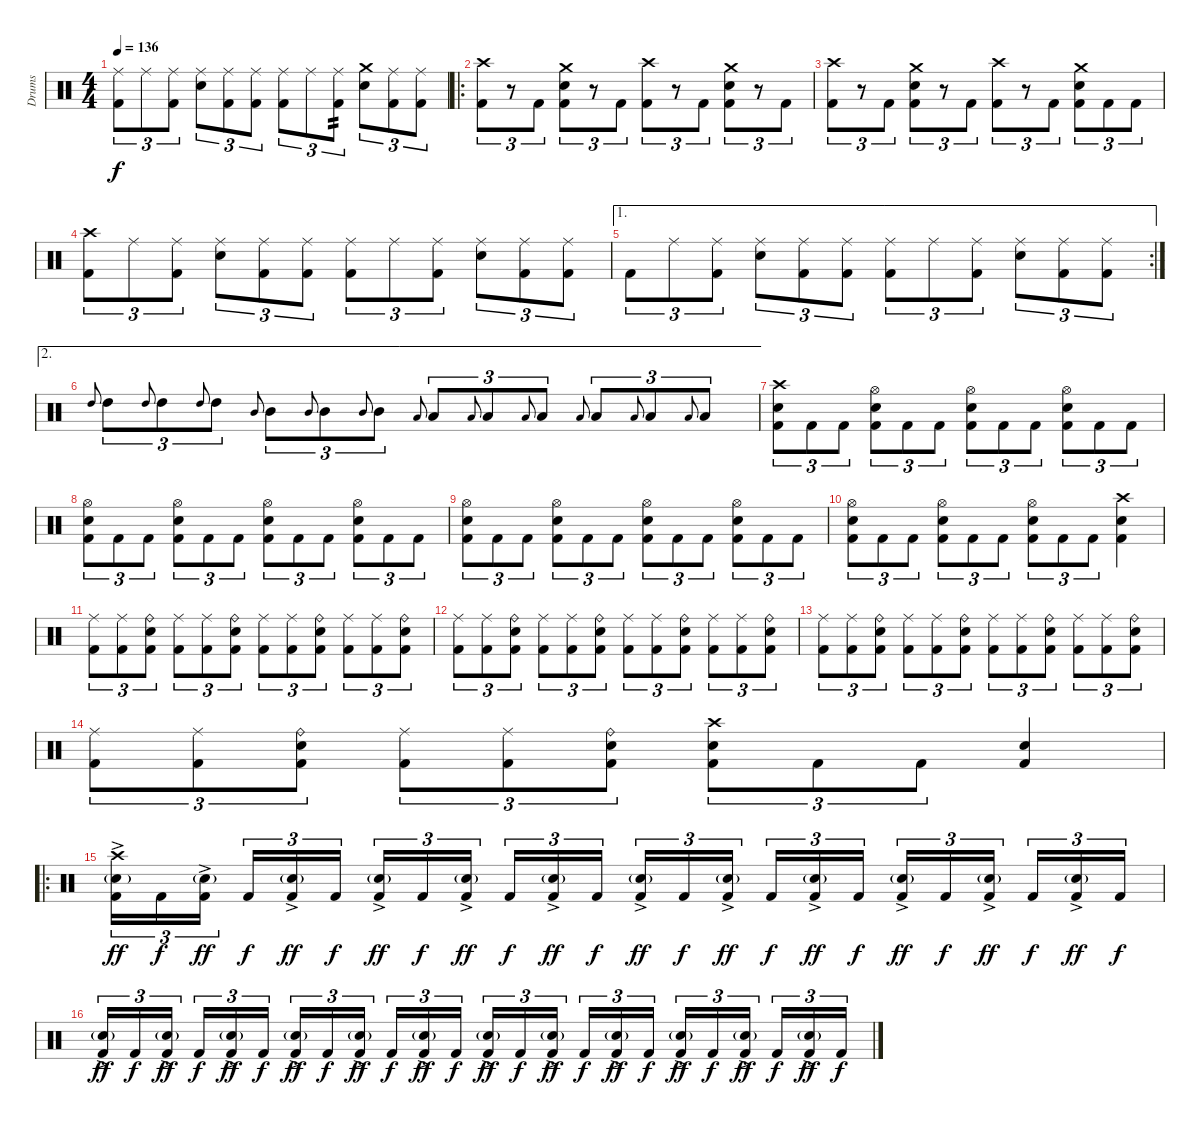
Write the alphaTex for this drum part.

\track ("Drums" "Drums") {instrument percussion}
\staff {score}
\articulation defaults
\ts (4 4)
\tempo 136
\clef neutral
\ks c
("Ride (middle)" "Kick (hit) 2").8{tu (3 2) dy f} "Ride (middle)".8{tu (3 2)} ("Ride (middle)" "Kick (hit) 2").8{tu (3 2)} ("Ride (middle)" "Electric Snare (hit)").8{tu (3 2)} ("Ride (middle)" "Kick (hit) 2").8{tu (3 2)} ("Ride (middle)" "Kick (hit) 2").8{tu (3 2)} ("Ride (middle)" "Kick (hit) 2").8{tu (3 2)} "Ride (middle)".8{tu (3 2)} ("Ride (middle)" "Kick (hit) 2").8{tu (3 2) tp 2} ("Crash medium (hit)" "Electric Snare (hit)").8{tu (3 2)} ("Ride (middle)" "Kick (hit) 2").8{tu (3 2)} ("Ride (middle)" "Kick (hit) 2").8{tu (3 2)} |
\ro
("Crash high (hit)" "Kick (hit) 2").8{tu (3 2)} r.8{tu (3 2)} "Kick (hit) 2".8{tu (3 2)} ("Crash medium (hit)" "Electric Snare (hit)" "Kick (hit) 2").8{tu (3 2)} r.8{tu (3 2)} "Kick (hit) 2".8{tu (3 2)} ("Crash high (hit)" "Kick (hit) 2").8{tu (3 2)} r.8{tu (3 2)} "Kick (hit) 2".8{tu (3 2)} ("Crash medium (hit)" "Electric Snare (hit)" "Kick (hit) 2").8{tu (3 2)} r.8{tu (3 2)} "Kick (hit) 2".8{tu (3 2)} |
("Crash high (hit)" "Kick (hit) 2").8{tu (3 2)} r.8{tu (3 2)} "Kick (hit) 2".8{tu (3 2)} ("Crash medium (hit)" "Electric Snare (hit)" "Kick (hit) 2").8{tu (3 2)} r.8{tu (3 2)} "Kick (hit) 2".8{tu (3 2)} ("Crash high (hit)" "Kick (hit) 2").8{tu (3 2)} r.8{tu (3 2)} "Kick (hit) 2".8{tu (3 2)} ("Crash medium (hit)" "Electric Snare (hit)" "Kick (hit) 2").8{tu (3 2)} "Kick (hit) 2".8{tu (3 2)} "Kick (hit) 2".8{tu (3 2)} |
("Crash high (hit)" "Kick (hit) 2").8{tu (3 2)} "Ride (middle)".8{tu (3 2)} ("Ride (middle)" "Kick (hit) 2").8{tu (3 2)} ("Ride (middle)" "Electric Snare (hit)").8{tu (3 2)} ("Ride (middle)" "Kick (hit) 2").8{tu (3 2)} ("Ride (middle)" "Kick (hit) 2").8{tu (3 2)} ("Ride (middle)" "Kick (hit) 2").8{tu (3 2)} "Ride (middle)".8{tu (3 2)} ("Ride (middle)" "Kick (hit) 2").8{tu (3 2)} ("Ride (middle)" "Electric Snare (hit)").8{tu (3 2)} ("Ride (middle)" "Kick (hit) 2").8{tu (3 2)} ("Ride (middle)" "Kick (hit) 2").8{tu (3 2)} |
\ae 1
\rc 2 "Kick (hit) 2".8{tu (3 2)} "Ride (middle)".8{tu (3 2)}
("Ride (middle)" "Kick (hit) 2").8{tu (3 2)} ("Ride (middle)" "Electric Snare (hit)").8{tu (3 2)} ("Ride (middle)" "Kick (hit) 2").8{tu (3 2)} ("Ride (middle)" "Kick (hit) 2").8{tu (3 2)} ("Ride (middle)" "Kick (hit) 2").8{tu (3 2)} "Ride (middle)".8{tu (3 2)} ("Ride (middle)" "Kick (hit) 2").8{tu (3 2)} ("Ride (middle)" "Electric Snare (hit)").8{tu (3 2)} ("Ride (middle)" "Kick (hit) 2").8{tu (3 2)} ("Ride (middle)" "Kick (hit) 2").8{tu (3 2)} |
\ae 2 "High Tom (hit)".8{gr onbeat} "High Tom (hit)".8{tu (3 2)} "High Tom (hit)".8{gr onbeat} "High Tom (hit)".8{tu (3 2)} "High Tom (hit)".8{gr onbeat} "High Tom (hit)".8{tu (3 2)} "Mid Tom (hit)".8{gr onbeat} "Mid Tom (hit)".8{tu (3 2)} "Mid Tom (hit)".8{gr onbeat} "Mid Tom (hit)".8{tu (3 2)} "Mid Tom (hit)".8{gr onbeat} "Mid Tom (hit)".8{tu (3 2)} "Low Tom (hit)".8{gr onbeat} "Low Tom (hit)".8{tu (3 2)} "Low Tom (hit)".8{gr onbeat} "Low Tom (hit)".8{tu (3 2)} "Low Tom (hit)".8{gr onbeat} "Low Tom (hit)".8{tu (3 2)} "Low Floor Tom (hit)".8{gr onbeat} "Low Floor Tom (hit)".8{tu (3 2)} "Low Floor Tom (hit)".8{gr onbeat} "Low Floor Tom (hit)".8{tu (3 2)} "Low Floor Tom (hit)".8{gr onbeat} "Low Floor Tom (hit)".8{tu (3 2)}
|
("Crash high (hit)" "Electric Snare (hit)" "Kick (hit) 2").8{tu (3 2)} "Kick (hit) 2".8{tu (3 2)} "Kick (hit) 2".8{tu (3 2)} ("Hi-Hat (open)" "Electric Snare (hit)" "Kick (hit) 2").8{tu (3 2)} "Kick (hit) 2".8{tu (3 2)} "Kick (hit) 2".8{tu (3 2)} ("Hi-Hat (open)" "Electric Snare (hit)" "Kick (hit) 2").8{tu (3 2)} "Kick (hit) 2".8{tu (3 2)} "Kick (hit) 2".8{tu (3 2)} ("Hi-Hat (open)" "Electric Snare (hit)" "Kick (hit) 2").8{tu (3 2)} "Kick (hit) 2".8{tu (3 2)} "Kick (hit) 2".8{tu (3 2)} |
("Hi-Hat (open)" "Electric Snare (hit)" "Kick (hit) 2").8{tu (3 2)} "Kick (hit) 2".8{tu (3 2)} "Kick (hit) 2".8{tu (3 2)} ("Hi-Hat (open)" "Electric Snare (hit)" "Kick (hit) 2").8{tu (3 2)} "Kick (hit) 2".8{tu (3 2)} "Kick (hit) 2".8{tu (3 2)} ("Hi-Hat (open)" "Electric Snare (hit)" "Kick (hit) 2").8{tu (3 2)} "Kick (hit) 2".8{tu (3 2)} "Kick (hit) 2".8{tu (3 2)} ("Hi-Hat (open)" "Electric Snare (hit)" "Kick (hit) 2").8{tu (3 2)} "Kick (hit) 2".8{tu (3 2)} "Kick (hit) 2".8{tu (3 2)} |
("Hi-Hat (open)" "Electric Snare (hit)" "Kick (hit) 2").8{tu (3 2)} "Kick (hit) 2".8{tu (3 2)} "Kick (hit) 2".8{tu (3 2)} ("Hi-Hat (open)" "Electric Snare (hit)" "Kick (hit) 2").8{tu (3 2)} "Kick (hit) 2".8{tu (3 2)} "Kick (hit) 2".8{tu (3 2)} ("Hi-Hat (open)" "Electric Snare (hit)" "Kick (hit) 2").8{tu (3 2)} "Kick (hit) 2".8{tu (3 2)} "Kick (hit) 2".8{tu (3 2)} ("Hi-Hat (open)" "Electric Snare (hit)" "Kick (hit) 2").8{tu (3 2)} "Kick (hit) 2".8{tu (3 2)} "Kick (hit) 2".8{tu (3 2)} |
("Hi-Hat (open)" "Electric Snare (hit)" "Kick (hit) 2").8{tu (3 2)} "Kick (hit) 2".8{tu (3 2)} "Kick (hit) 2".8{tu (3 2)} ("Hi-Hat (open)" "Electric Snare (hit)" "Kick (hit) 2").8{tu (3 2)} "Kick (hit) 2".8{tu (3 2)} "Kick (hit) 2".8{tu (3 2)} ("Hi-Hat (open)" "Electric Snare (hit)" "Kick (hit) 2").8{tu (3 2)} "Kick (hit) 2".8{tu (3 2)} "Kick (hit) 2".8{tu (3 2)} ("Crash high (hit)" "Electric Snare (hit)" "Kick (hit) 2").4 |
("Ride (middle)" "Kick (hit) 2").8{tu (3 2)} ("Ride (middle)" "Kick (hit) 2").8{tu (3 2)} ("Ride (bell)" "Electric Snare (hit)" "Kick (hit) 2").8{tu (3 2)} ("Ride (middle)" "Kick (hit) 2").8{tu (3 2)} ("Ride (middle)" "Kick (hit) 2").8{tu (3 2)} ("Ride (bell)" "Electric Snare (hit)" "Kick (hit) 2").8{tu (3 2)} ("Ride (middle)" "Kick (hit) 2").8{tu (3 2)} ("Ride (middle)" "Kick (hit) 2").8{tu (3 2)} ("Ride (bell)" "Electric Snare (hit)" "Kick (hit) 2").8{tu (3 2)} ("Ride (middle)" "Kick (hit) 2").8{tu (3 2)} ("Ride (middle)" "Kick (hit) 2").8{tu (3 2)} ("Ride (bell)" "Electric Snare (hit)" "Kick (hit) 2").8{tu (3 2)} |
("Ride (middle)" "Kick (hit) 2").8{tu (3 2)} ("Ride (middle)" "Kick (hit) 2").8{tu (3 2)} ("Ride (bell)" "Electric Snare (hit)" "Kick (hit) 2").8{tu (3 2)} ("Ride (middle)" "Kick (hit) 2").8{tu (3 2)} ("Ride (middle)" "Kick (hit) 2").8{tu (3 2)} ("Ride (bell)" "Electric Snare (hit)" "Kick (hit) 2").8{tu (3 2)} ("Ride (middle)" "Kick (hit) 2").8{tu (3 2)} ("Ride (middle)" "Kick (hit) 2").8{tu (3 2)} ("Ride (bell)" "Electric Snare (hit)" "Kick (hit) 2").8{tu (3 2)} ("Ride (middle)" "Kick (hit) 2").8{tu (3 2)} ("Ride (middle)" "Kick (hit) 2").8{tu (3 2)} ("Ride (bell)" "Electric Snare (hit)" "Kick (hit) 2").8{tu (3 2)} |
("Ride (middle)" "Kick (hit) 2").8{tu (3 2)} ("Ride (middle)" "Kick (hit) 2").8{tu (3 2)} ("Ride (bell)" "Electric Snare (hit)" "Kick (hit) 2").8{tu (3 2)} ("Ride (middle)" "Kick (hit) 2").8{tu (3 2)} ("Ride (middle)" "Kick (hit) 2").8{tu (3 2)} ("Ride (bell)" "Electric Snare (hit)" "Kick (hit) 2").8{tu (3 2)} ("Ride (middle)" "Kick (hit) 2").8{tu (3 2)} ("Ride (middle)" "Kick (hit) 2").8{tu (3 2)} ("Ride (bell)" "Electric Snare (hit)" "Kick (hit) 2").8{tu (3 2)} ("Ride (middle)" "Kick (hit) 2").8{tu (3 2)} ("Ride (middle)" "Kick (hit) 2").8{tu (3 2)} ("Ride (bell)" "Electric Snare (hit)" "Kick (hit) 2").8{tu (3 2)} |
("Ride (middle)" "Kick (hit) 2").8{tu (3 2)} ("Ride (middle)" "Kick (hit) 2").8{tu (3 2)} ("Ride (bell)" "Electric Snare (hit)" "Kick (hit) 2").8{tu (3 2)} ("Ride (middle)" "Kick (hit) 2").8{tu (3 2)} ("Ride (middle)" "Kick (hit) 2").8{tu (3 2)} ("Ride (bell)" "Electric Snare (hit)" "Kick (hit) 2").8{tu (3 2)} ("Crash high (hit)" "Electric Snare (hit)" "Kick (hit) 2").8{tu (3 2)} "Kick (hit) 2".8{tu (3 2)} "Kick (hit) 2".8{tu (3 2)} ("Electric Snare (hit)" "Kick (hit) 2").4 |
\ro
("Crash high (hit)" "Electric Snare (hit)"{g} "Kick (hit) 2"{ac}).16{tu (3 2) dy ff} "Kick (hit) 2".16{tu (3 2) dy f} ("Electric Snare (hit)"{g} "Kick (hit) 2"{ac}).16{tu (3 2) dy ff beam splitsecondary} "Kick (hit) 2".16{tu (3 2) dy f} ("Electric Snare (hit)"{g} "Kick (hit) 2"{ac}).16{tu (3 2) dy ff} "Kick (hit) 2".16{tu (3 2) dy f} ("Electric Snare (hit)"{g} "Kick (hit) 2"{ac}).16{tu (3 2) dy ff} "Kick (hit) 2".16{tu (3 2) dy f} ("Electric Snare (hit)"{g} "Kick (hit) 2"{ac}).16{tu (3 2) dy ff beam splitsecondary} "Kick (hit) 2".16{tu (3 2) dy f} ("Electric Snare (hit)"{g} "Kick (hit) 2"{ac}).16{tu (3 2) dy ff} "Kick (hit) 2".16{tu (3 2) dy f} ("Electric Snare (hit)"{g} "Kick (hit) 2"{ac}).16{tu (3 2) dy ff} "Kick (hit) 2".16{tu (3 2) dy f} ("Electric Snare (hit)"{g} "Kick (hit) 2"{ac}).16{tu (3 2) dy ff beam splitsecondary} "Kick (hit) 2".16{tu (3 2) dy f} ("Electric Snare (hit)"{g} "Kick (hit) 2"{ac}).16{tu (3 2) dy ff} "Kick (hit) 2".16{tu (3 2) dy f} ("Electric Snare (hit)"{g} "Kick (hit) 2"{ac}).16{tu (3 2) dy ff} "Kick (hit) 2".16{tu (3 2) dy f} ("Electric Snare (hit)"{g} "Kick (hit) 2"{ac}).16{tu (3 2) dy ff beam splitsecondary} "Kick (hit) 2".16{tu (3 2) dy f} ("Electric Snare (hit)"{g} "Kick (hit) 2"{ac}).16{tu (3 2) dy ff} "Kick (hit) 2".16{tu (3 2) dy f} |
("Electric Snare (hit)"{g} "Kick (hit) 2"{ac}).16{tu (3 2) dy ff} "Kick (hit) 2".16{tu (3 2) dy f} ("Electric Snare (hit)"{g} "Kick (hit) 2"{ac}).16{tu (3 2) dy ff beam splitsecondary} "Kick (hit) 2".16{tu (3 2) dy f} ("Electric Snare (hit)"{g} "Kick (hit) 2"{ac}).16{tu (3 2) dy ff} "Kick (hit) 2".16{tu (3 2) dy f} ("Electric Snare (hit)"{g} "Kick (hit) 2"{ac}).16{tu (3 2) dy ff} "Kick (hit) 2".16{tu (3 2) dy f} ("Electric Snare (hit)"{g} "Kick (hit) 2"{ac}).16{tu (3 2) dy ff beam splitsecondary} "Kick (hit) 2".16{tu (3 2) dy f} ("Electric Snare (hit)"{g} "Kick (hit) 2"{ac}).16{tu (3 2) dy ff} "Kick (hit) 2".16{tu (3 2) dy f} ("Electric Snare (hit)"{g} "Kick (hit) 2"{ac}).16{tu (3 2) dy ff} "Kick (hit) 2".16{tu (3 2) dy f} ("Electric Snare (hit)"{g} "Kick (hit) 2"{ac}).16{tu (3 2) dy ff beam splitsecondary} "Kick (hit) 2".16{tu (3 2) dy f} ("Electric Snare (hit)"{g} "Kick (hit) 2"{ac}).16{tu (3 2) dy ff} "Kick (hit) 2".16{tu (3 2) dy f} ("Electric Snare (hit)"{g} "Kick (hit) 2"{ac}).16{tu (3 2) dy ff} "Kick (hit) 2".16{tu (3 2) dy f} ("Electric Snare (hit)"{g} "Kick (hit) 2"{ac}).16{tu (3 2) dy ff beam splitsecondary} "Kick (hit) 2".16{tu (3 2) dy f} ("Electric Snare (hit)"{g} "Kick (hit) 2"{ac}).16{tu (3 2) dy ff} "Kick (hit) 2".16{tu (3 2) dy f}
